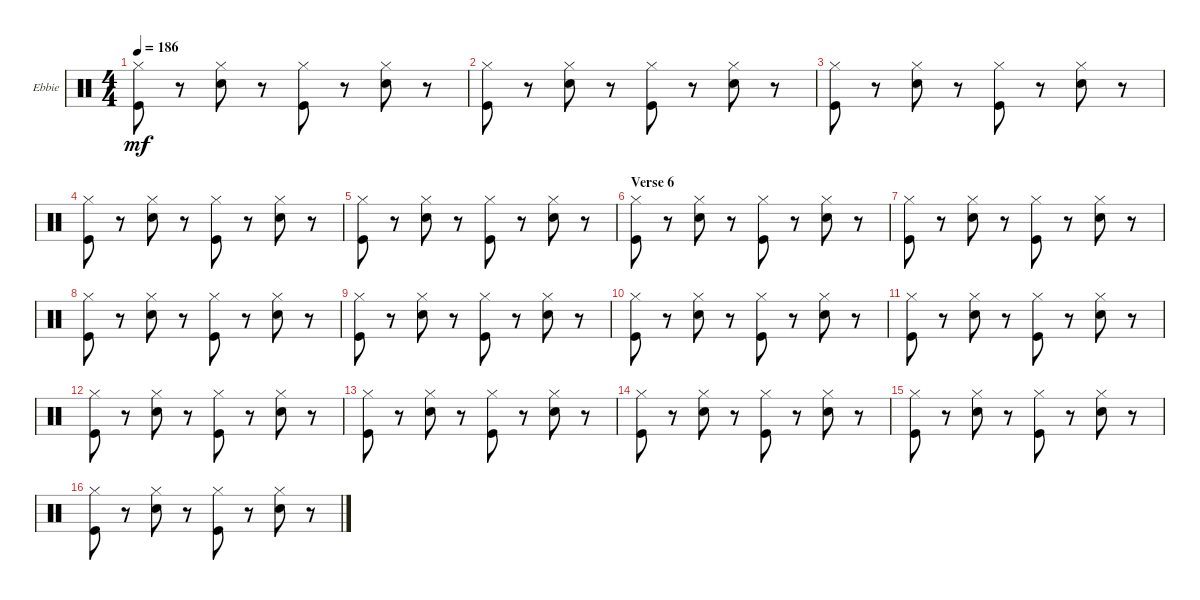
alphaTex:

\defaultSystemsLayout 4
\bracketExtendMode groupsimilarinstruments
\firstSystemTrackNameOrientation horizontal
\otherSystemsTrackNameOrientation horizontal
\track ("Ebbie Hardy" "Ebbie") {instrument percussion}
\staff {score}
\articulation defaults
\ts (4 4)
\tempo 186
\clef neutral
\scale
0.333333
\ks c
("Hi-Hat (closed)" "Kick (hit)").8{dy mf} r.8 ("Hi-Hat (closed)" "Snare (hit) 2").8 r.8 ("Hi-Hat (closed)" "Kick (hit)").8 r.8 ("Hi-Hat (closed)" "Snare (hit) 2").8 r.8 |
\scale
0.333333 ("Hi-Hat (closed)" "Kick (hit)").8 r.8 ("Hi-Hat (closed)" "Snare (hit) 2").8 r.8 ("Hi-Hat (closed)" "Kick (hit)").8 r.8 ("Hi-Hat (closed)" "Snare (hit) 2").8 r.8 |
\scale
0.333333 ("Hi-Hat (closed)" "Kick (hit)").8 r.8 ("Hi-Hat (closed)" "Snare (hit) 2").8 r.8 ("Hi-Hat (closed)" "Kick (hit)").8 r.8 ("Hi-Hat (closed)" "Snare (hit) 2").8 r.8 |
\scale
0.333333 ("Hi-Hat (closed)" "Kick (hit)").8 r.8 ("Hi-Hat (closed)" "Snare (hit) 2").8 r.8 ("Hi-Hat (closed)" "Kick (hit)").8 r.8 ("Hi-Hat (closed)" "Snare (hit) 2").8 r.8 |
\scale
0.333333 ("Hi-Hat (closed)" "Kick (hit)").8 r.8 ("Hi-Hat (closed)" "Snare (hit) 2").8 r.8 ("Hi-Hat (closed)" "Kick (hit)").8 r.8 ("Hi-Hat (closed)" "Snare (hit) 2").8 r.8 |
\section ("" "Verse 6")
\scale
0.333333 ("Hi-Hat (closed)" "Kick (hit)").8 r.8 ("Hi-Hat (closed)" "Snare (hit) 2").8 r.8 ("Hi-Hat (closed)" "Kick (hit)").8 r.8 ("Hi-Hat (closed)" "Snare (hit) 2").8 r.8 |
\scale
0.333333 ("Hi-Hat (closed)" "Kick (hit)").8 r.8 ("Hi-Hat (closed)" "Snare (hit) 2").8 r.8 ("Hi-Hat (closed)" "Kick (hit)").8 r.8 ("Hi-Hat (closed)" "Snare (hit) 2").8 r.8 |
\scale
0.333333 ("Hi-Hat (closed)" "Kick (hit)").8 r.8 ("Hi-Hat (closed)" "Snare (hit) 2").8 r.8 ("Hi-Hat (closed)" "Kick (hit)").8 r.8 ("Hi-Hat (closed)" "Snare (hit) 2").8 r.8 |
\scale
0.333333 ("Hi-Hat (closed)" "Kick (hit)").8 r.8 ("Hi-Hat (closed)" "Snare (hit) 2").8 r.8 ("Hi-Hat (closed)" "Kick (hit)").8 r.8 ("Hi-Hat (closed)" "Snare (hit) 2").8 r.8 |
\scale
0.333333 ("Hi-Hat (closed)" "Kick (hit)").8 r.8 ("Hi-Hat (closed)" "Snare (hit) 2").8 r.8 ("Hi-Hat (closed)" "Kick (hit)").8 r.8 ("Hi-Hat (closed)" "Snare (hit) 2").8 r.8 |
\scale
0.333333 ("Hi-Hat (closed)" "Kick (hit)").8 r.8 ("Hi-Hat (closed)" "Snare (hit) 2").8 r.8 ("Hi-Hat (closed)" "Kick (hit)").8 r.8 ("Hi-Hat (closed)" "Snare (hit) 2").8 r.8 |
\scale
0.333333 ("Hi-Hat (closed)" "Kick (hit)").8 r.8 ("Hi-Hat (closed)" "Snare (hit) 2").8 r.8 ("Hi-Hat (closed)" "Kick (hit)").8 r.8 ("Hi-Hat (closed)" "Snare (hit) 2").8 r.8 |
\scale
0.333333 ("Hi-Hat (closed)" "Kick (hit)").8 r.8 ("Hi-Hat (closed)" "Snare (hit) 2").8 r.8 ("Hi-Hat (closed)" "Kick (hit)").8 r.8 ("Hi-Hat (closed)" "Snare (hit) 2").8 r.8 |
\scale
0.333333 ("Hi-Hat (closed)" "Kick (hit)").8 r.8 ("Hi-Hat (closed)" "Snare (hit) 2").8 r.8 ("Hi-Hat (closed)" "Kick (hit)").8 r.8 ("Hi-Hat (closed)" "Snare (hit) 2").8 r.8 |
\scale
0.333333 ("Hi-Hat (closed)" "Kick (hit)").8 r.8 ("Hi-Hat (closed)" "Snare (hit) 2").8 r.8 ("Hi-Hat (closed)" "Kick (hit)").8 r.8 ("Hi-Hat (closed)" "Snare (hit) 2").8 r.8 |
\scale
0.333333 ("Hi-Hat (closed)" "Kick (hit)").8 r.8 ("Hi-Hat (closed)" "Snare (hit) 2").8 r.8 ("Hi-Hat (closed)" "Kick (hit)").8 r.8 ("Hi-Hat (closed)" "Snare (hit) 2").8 r.8
